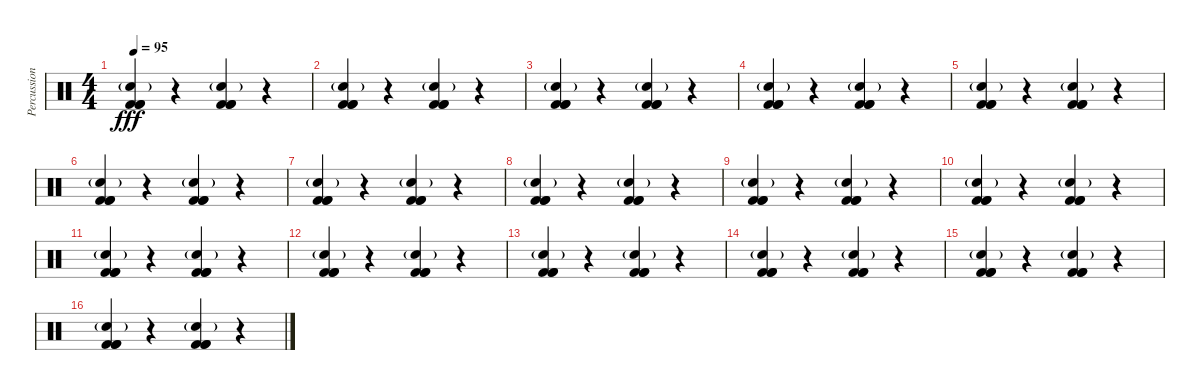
\track ("Percussion" "Percussion") {instrument percussion}
\staff {score}
\articulation defaults
\ts (4 4)
\tempo 95
\clef neutral
\ks c
("Hand Clap (hit)"{g} "Kick (hit) 2" "Kick (hit) 2" "Kick (hit) 2").4{bd 120 dy fff} r.4 ("Hand Clap (hit)"{g} "Kick (hit) 2" "Kick (hit) 2" "Kick (hit) 2").4{bd 120} r.4 |
("Hand Clap (hit)"{g} "Kick (hit) 2" "Kick (hit) 2" "Kick (hit) 2").4{bd 120} r.4 ("Hand Clap (hit)"{g} "Kick (hit) 2" "Kick (hit) 2" "Kick (hit) 2").4{bd 120} r.4 |
("Hand Clap (hit)"{g} "Kick (hit) 2" "Kick (hit) 2" "Kick (hit) 2").4{bd 120} r.4 ("Hand Clap (hit)"{g} "Kick (hit) 2" "Kick (hit) 2" "Kick (hit) 2").4{bd 120} r.4 |
("Hand Clap (hit)"{g} "Kick (hit) 2" "Kick (hit) 2" "Kick (hit) 2").4{bd 120} r.4 ("Hand Clap (hit)"{g} "Kick (hit) 2" "Kick (hit) 2" "Kick (hit) 2").4{bd 120} r.4 |
("Hand Clap (hit)"{g} "Kick (hit) 2" "Kick (hit) 2" "Kick (hit) 2").4{bd 120} r.4 ("Hand Clap (hit)"{g} "Kick (hit) 2" "Kick (hit) 2" "Kick (hit) 2").4{bd 120} r.4 |
("Hand Clap (hit)"{g} "Kick (hit) 2" "Kick (hit) 2" "Kick (hit) 2").4{bd 120} r.4 ("Hand Clap (hit)"{g} "Kick (hit) 2" "Kick (hit) 2" "Kick (hit) 2").4{bd 120} r.4 |
("Hand Clap (hit)"{g} "Kick (hit) 2" "Kick (hit) 2" "Kick (hit) 2").4{bd 120} r.4 ("Hand Clap (hit)"{g} "Kick (hit) 2" "Kick (hit) 2" "Kick (hit) 2").4{bd 120} r.4 |
("Hand Clap (hit)"{g} "Kick (hit) 2" "Kick (hit) 2" "Kick (hit) 2").4{bd 120} r.4 ("Hand Clap (hit)"{g} "Kick (hit) 2" "Kick (hit) 2" "Kick (hit) 2").4{bd 120} r.4 |
("Hand Clap (hit)"{g} "Kick (hit) 2" "Kick (hit) 2" "Kick (hit) 2").4{bd 120} r.4 ("Hand Clap (hit)"{g} "Kick (hit) 2" "Kick (hit) 2" "Kick (hit) 2").4{bd 120} r.4 |
("Hand Clap (hit)"{g} "Kick (hit) 2" "Kick (hit) 2" "Kick (hit) 2").4{bd 120} r.4 ("Hand Clap (hit)"{g} "Kick (hit) 2" "Kick (hit) 2" "Kick (hit) 2").4{bd 120} r.4 |
("Hand Clap (hit)"{g} "Kick (hit) 2" "Kick (hit) 2" "Kick (hit) 2").4{bd 120} r.4 ("Hand Clap (hit)"{g} "Kick (hit) 2" "Kick (hit) 2" "Kick (hit) 2").4{bd 120} r.4 |
("Hand Clap (hit)"{g} "Kick (hit) 2" "Kick (hit) 2" "Kick (hit) 2").4{bd 120} r.4 ("Hand Clap (hit)"{g} "Kick (hit) 2" "Kick (hit) 2" "Kick (hit) 2").4{bd 120} r.4 |
("Hand Clap (hit)"{g} "Kick (hit) 2" "Kick (hit) 2" "Kick (hit) 2").4{bd 120} r.4 ("Hand Clap (hit)"{g} "Kick (hit) 2" "Kick (hit) 2" "Kick (hit) 2").4{bd 120} r.4 |
("Hand Clap (hit)"{g} "Kick (hit) 2" "Kick (hit) 2" "Kick (hit) 2").4{bd 120} r.4 ("Hand Clap (hit)"{g} "Kick (hit) 2" "Kick (hit) 2" "Kick (hit) 2").4{bd 120} r.4 |
("Hand Clap (hit)"{g} "Kick (hit) 2" "Kick (hit) 2" "Kick (hit) 2").4{bd 120} r.4 ("Hand Clap (hit)"{g} "Kick (hit) 2" "Kick (hit) 2" "Kick (hit) 2").4{bd 120} r.4 |
("Hand Clap (hit)"{g} "Kick (hit) 2" "Kick (hit) 2" "Kick (hit) 2").4{bd 120} r.4 ("Hand Clap (hit)"{g} "Kick (hit) 2" "Kick (hit) 2" "Kick (hit) 2").4{bd 120} r.4
